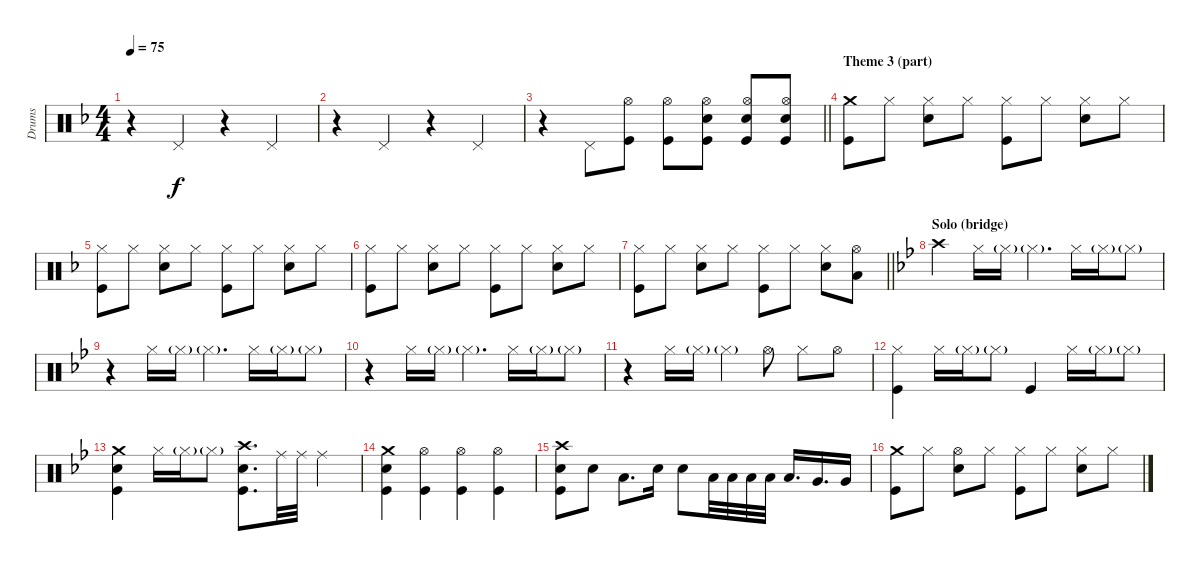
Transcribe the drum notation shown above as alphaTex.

\track ("Drums" "Drums") {instrument percussion}
\staff {score}
\articulation defaults
\ts (4 4)
\tempo 75
\clef neutral
\ks f
r.4{dy f} "Pedal Hi-Hat (hit)".4 r.4 "Pedal Hi-Hat (hit)".4 |
r.4 "Pedal Hi-Hat (hit)".4 r.4 "Pedal Hi-Hat (hit)".4 |
\barLineRight lightlight
r.4 "Pedal Hi-Hat (hit)".8 ("Kick (hit)" "Hi-Hat (open)").8 ("Kick (hit)" "Hi-Hat (open)").8 ("Kick (hit)" "Hi-Hat (open)" "Electric Snare (hit)").8 ("Kick (hit)" "Hi-Hat (open)" "Electric Snare (hit)").8 ("Kick (hit)" "Hi-Hat (open)" "Electric Snare (hit)").8 |
\section ("" "Theme 3 (part)")
("Kick (hit)" "Crash medium (hit)").8 "Hi-Hat (closed)".8 ("Hi-Hat (closed)" "Electric Snare (hit)").8 "Hi-Hat (closed)".8 ("Kick (hit)" "Hi-Hat (closed)").8 "Hi-Hat (closed)".8 ("Hi-Hat (closed)" "Electric Snare (hit)").8 "Hi-Hat (closed)".8 |
("Kick (hit)" "Hi-Hat (closed)").8 "Hi-Hat (closed)".8 ("Hi-Hat (closed)" "Electric Snare (hit)").8 "Hi-Hat (closed)".8 ("Kick (hit)" "Hi-Hat (closed)").8 "Hi-Hat (closed)".8 ("Hi-Hat (closed)" "Electric Snare (hit)").8 "Hi-Hat (closed)".8 |
("Kick (hit)" "Hi-Hat (closed)").8 "Hi-Hat (closed)".8 ("Hi-Hat (closed)" "Electric Snare (hit)").8 "Hi-Hat (closed)".8 ("Kick (hit)" "Hi-Hat (closed)").8 "Hi-Hat (closed)".8 ("Hi-Hat (closed)" "Electric Snare (hit)").8 "Hi-Hat (closed)".8 |
\barLineRight lightlight
("Kick (hit)" "Hi-Hat (closed)").8 "Hi-Hat (closed)".8 ("Hi-Hat (closed)" "Electric Snare (hit)").8 "Hi-Hat (closed)".8 ("Kick (hit)" "Hi-Hat (closed)").8 "Hi-Hat (closed)".8 ("Hi-Hat (closed)" "Electric Snare (hit)").8 ("Hi-Hat (open)" "Low Tom (hit)").8 |
\section ("" "Solo (bridge)")
\ks bb "Crash high (hit)".4 "Hi-Hat (closed)".16 "Hi-Hat (closed)"{g}.16 "Hi-Hat (closed)"{g}.4{d} "Hi-Hat (closed)".16 "Hi-Hat (closed)"{g}.16 "Hi-Hat (closed)"{g}.8
|
r.4 "Hi-Hat (closed)".16 "Hi-Hat (closed)"{g}.16 "Hi-Hat (closed)"{g}.4{d} "Hi-Hat (closed)".16 "Hi-Hat (closed)"{g}.16 "Hi-Hat (closed)"{g}.8 |
r.4 "Hi-Hat (closed)".16 "Hi-Hat (closed)"{g}.16 "Hi-Hat (closed)"{g}.4{d} "Hi-Hat (closed)".16 "Hi-Hat (closed)"{g}.16 "Hi-Hat (closed)"{g}.8 |
r.4 "Hi-Hat (closed)".16 "Hi-Hat (closed)"{g}.16 "Hi-Hat (closed)"{g}.4 "Hi-Hat (open)".8 "Hi-Hat (closed)".8 "Hi-Hat (open)".8 |
("Kick (hit)" "Hi-Hat (closed)").4 "Hi-Hat (closed)".16 "Hi-Hat (closed)"{g}.16 "Hi-Hat (closed)"{g}.8 "Kick (hit)".4 "Hi-Hat (closed)".16 "Hi-Hat (closed)"{g}.16 "Hi-Hat (closed)"{g}.8 |
("Kick (hit)" "Electric Snare (hit)" "Crash medium (hit)").4 "Hi-Hat (closed)".16 "Hi-Hat (closed)"{g}.16 "Hi-Hat (closed)"{g}.8 ("Kick (hit)" "Electric Snare (hit)" "Crash high (hit)").8{d} "Ride (middle)".32 "Ride (middle)".32 "Ride (middle)".4 |
("Kick (hit)" "Electric Snare (hit)" "Crash medium (hit)").4 ("Kick (hit)" "Hi-Hat (open)").4 ("Kick (hit)" "Hi-Hat (open)").4 ("Kick (hit)" "Hi-Hat (open)").4 |
("Kick (hit)" "Electric Snare (hit)" "Crash high (hit)").8 "Electric Snare (hit)".8 "Low Tom (hit)".8{d} "Electric Snare (hit)".16 "Electric Snare (hit)".8 "Low Tom (hit)".32 "Low Tom (hit)".32 "Low Tom (hit)".32 "Low Tom (hit)".32 "Low Tom (hit)".16{d} "Very Low Tom (hit)".16{d} "Very Low Tom (hit)".16 |
("Kick (hit)" "Crash medium (hit)").8 "Hi-Hat (closed)".8 ("Hi-Hat (open)" "Electric Snare (hit)").8 "Hi-Hat (closed)".8 ("Kick (hit)" "Hi-Hat (closed)").8 "Hi-Hat (closed)".8 ("Hi-Hat (closed)" "Electric Snare (hit)").8 "Hi-Hat (closed)".8
